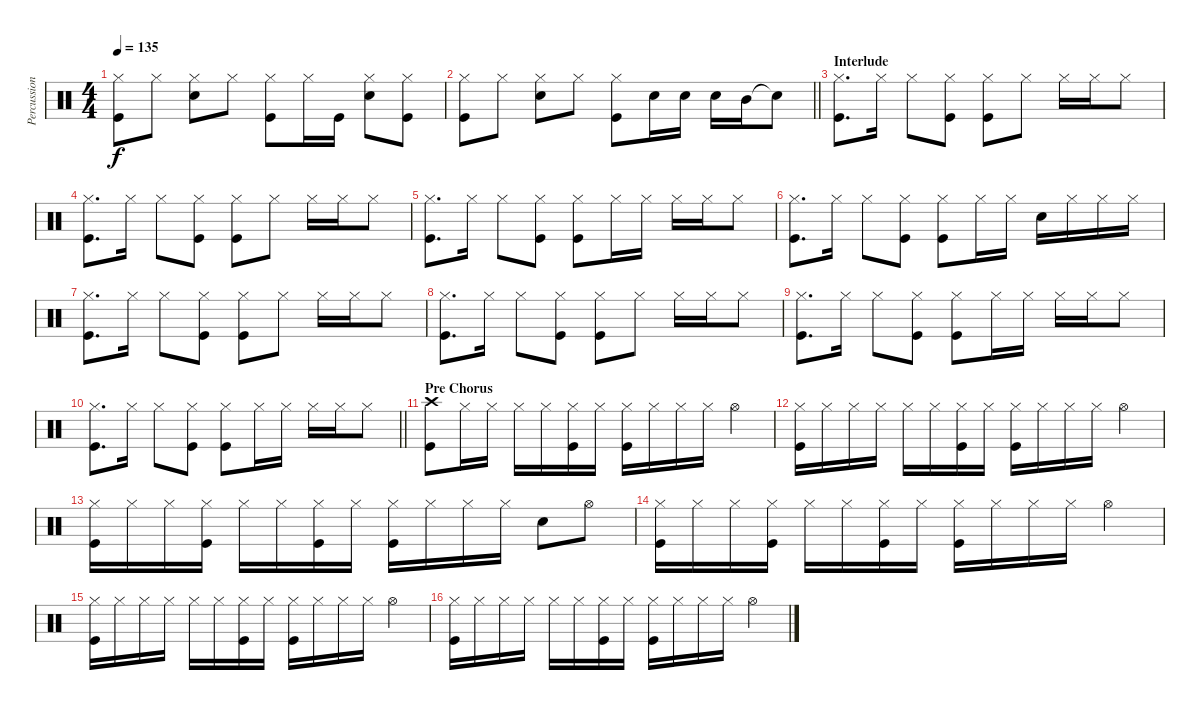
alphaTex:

\track ("Percussion" "Percussion") {instrument percussion}
\staff {score}
\articulation defaults
\ts (4 4)
\tempo 135
\clef neutral
\ks c
("Kick (hit)" "Hi-Hat (closed)").8{dy f} "Hi-Hat (closed)".8 ("Hi-Hat (closed)" "Snare (hit) 2").8 "Hi-Hat (closed)".8 ("Kick (hit)" "Hi-Hat (closed)").8 "Hi-Hat (closed)".16 "Kick (hit)".16 ("Hi-Hat (closed)" "Snare (hit) 2").8 ("Kick (hit)" "Hi-Hat (closed)").8 |
\barLineRight lightlight
("Kick (hit)" "Hi-Hat (closed)").8 "Hi-Hat (closed)".8 ("Hi-Hat (closed)" "Snare (hit) 2").8 "Hi-Hat (closed)".8 ("Kick (hit)" "Hi-Hat (closed)").8 "Snare (hit) 2".16 "Snare (hit) 2".16 "Snare (hit) 2".16 "Mid Tom (hit)".16 "Snare (hit)"{t}.8 |
\section ("" "Interlude")
("Kick (hit)" "Hi-Hat (closed)").8{d} "Hi-Hat (closed)".16 "Hi-Hat (closed)".8 ("Kick (hit)" "Hi-Hat (closed)").8 ("Kick (hit)" "Hi-Hat (closed)").8 "Hi-Hat (closed)".8 "Hi-Hat (closed)".16 "Hi-Hat (closed)".16 "Hi-Hat (closed)".8 |
("Kick (hit)" "Hi-Hat (closed)").8{d} "Hi-Hat (closed)".16 "Hi-Hat (closed)".8 ("Kick (hit)" "Hi-Hat (closed)").8 ("Kick (hit)" "Hi-Hat (closed)").8 "Hi-Hat (closed)".8 "Hi-Hat (closed)".16 "Hi-Hat (closed)".16 "Hi-Hat (closed)".8 |
("Kick (hit)" "Hi-Hat (closed)").8{d} "Hi-Hat (closed)".16 "Hi-Hat (closed)".8 ("Kick (hit)" "Hi-Hat (closed)").8 ("Kick (hit)" "Hi-Hat (closed)").8 "Hi-Hat (closed)".16 "Hi-Hat (closed)".16 "Hi-Hat (closed)".16 "Hi-Hat (closed)".16 "Hi-Hat (closed)".8 |
("Kick (hit)" "Hi-Hat (closed)").8{d} "Hi-Hat (closed)".16 "Hi-Hat (closed)".8 ("Kick (hit)" "Hi-Hat (closed)").8 ("Kick (hit)" "Hi-Hat (closed)").8 "Hi-Hat (closed)".16 "Hi-Hat (closed)".16 "Snare (hit) 2".16 "Hi-Hat (closed)".16 "Hi-Hat (closed)".16 "Hi-Hat (closed)".16 |
("Kick (hit)" "Hi-Hat (closed)").8{d} "Hi-Hat (closed)".16 "Hi-Hat (closed)".8 ("Kick (hit)" "Hi-Hat (closed)").8 ("Kick (hit)" "Hi-Hat (closed)").8 "Hi-Hat (closed)".8 "Hi-Hat (closed)".16 "Hi-Hat (closed)".16 "Hi-Hat (closed)".8 |
("Kick (hit)" "Hi-Hat (closed)").8{d} "Hi-Hat (closed)".16 "Hi-Hat (closed)".8 ("Kick (hit)" "Hi-Hat (closed)").8 ("Kick (hit)" "Hi-Hat (closed)").8 "Hi-Hat (closed)".8 "Hi-Hat (closed)".16 "Hi-Hat (closed)".16 "Hi-Hat (closed)".8 |
("Kick (hit)" "Hi-Hat (closed)").8{d} "Hi-Hat (closed)".16 "Hi-Hat (closed)".8 ("Kick (hit)" "Hi-Hat (closed)").8 ("Kick (hit)" "Hi-Hat (closed)").8 "Hi-Hat (closed)".16 "Hi-Hat (closed)".16 "Hi-Hat (closed)".16 "Hi-Hat (closed)".16 "Hi-Hat (closed)".8 |
\barLineRight lightlight
("Kick (hit)" "Hi-Hat (closed)").8{d} "Hi-Hat (closed)".16 "Hi-Hat (closed)".8 ("Kick (hit)" "Hi-Hat (closed)").8 ("Kick (hit)" "Hi-Hat (closed)").8 "Hi-Hat (closed)".16 "Hi-Hat (closed)".16 "Hi-Hat (closed)".16 "Hi-Hat (closed)".16 "Hi-Hat (closed)".8 |
\section ("" "Pre Chorus")
("Kick (hit)" "Crash high (hit)").8 "Hi-Hat (closed)".16 "Hi-Hat (closed)".16 "Hi-Hat (closed)".16 "Hi-Hat (closed)".16 ("Kick (hit)" "Hi-Hat (closed)").16 "Hi-Hat (closed)".16 ("Kick (hit)" "Hi-Hat (closed)").16 "Hi-Hat (closed)".16 "Hi-Hat (closed)".16 "Hi-Hat (closed)".16 "Hi-Hat (open)".4 |
("Kick (hit)" "Hi-Hat (closed)").16 "Hi-Hat (closed)".16 "Hi-Hat (closed)".16 "Hi-Hat (closed)".16 "Hi-Hat (closed)".16 "Hi-Hat (closed)".16 ("Kick (hit)" "Hi-Hat (closed)").16 "Hi-Hat (closed)".16 ("Kick (hit)" "Hi-Hat (closed)").16 "Hi-Hat (closed)".16 "Hi-Hat (closed)".16 "Hi-Hat (closed)".16 "Hi-Hat (open)".4 |
("Kick (hit)" "Hi-Hat (closed)").16 "Hi-Hat (closed)".16 "Hi-Hat (closed)".16 ("Kick (hit)" "Hi-Hat (closed)").16 "Hi-Hat (closed)".16 "Hi-Hat (closed)".16 ("Kick (hit)" "Hi-Hat (closed)").16 "Hi-Hat (closed)".16 ("Kick (hit)" "Hi-Hat (closed)").16 "Hi-Hat (closed)".16 "Hi-Hat (closed)".16 "Hi-Hat (closed)".16 "Snare (hit) 2".8 "Hi-Hat (open)".8 |
("Kick (hit)" "Hi-Hat (closed)").16 "Hi-Hat (closed)".16 "Hi-Hat (closed)".16 ("Kick (hit)" "Hi-Hat (closed)").16 "Hi-Hat (closed)".16 "Hi-Hat (closed)".16 ("Kick (hit)" "Hi-Hat (closed)").16 "Hi-Hat (closed)".16 ("Kick (hit)" "Hi-Hat (closed)").16 "Hi-Hat (closed)".16 "Hi-Hat (closed)".16 "Hi-Hat (closed)".16 "Hi-Hat (open)".4 |
("Kick (hit)" "Hi-Hat (closed)").16 "Hi-Hat (closed)".16 "Hi-Hat (closed)".16 "Hi-Hat (closed)".16 "Hi-Hat (closed)".16 "Hi-Hat (closed)".16 ("Kick (hit)" "Hi-Hat (closed)").16 "Hi-Hat (closed)".16 ("Kick (hit)" "Hi-Hat (closed)").16 "Hi-Hat (closed)".16 "Hi-Hat (closed)".16 "Hi-Hat (closed)".16 "Hi-Hat (open)".4 |
("Kick (hit)" "Hi-Hat (closed)").16 "Hi-Hat (closed)".16 "Hi-Hat (closed)".16 "Hi-Hat (closed)".16 "Hi-Hat (closed)".16 "Hi-Hat (closed)".16 ("Kick (hit)" "Hi-Hat (closed)").16 "Hi-Hat (closed)".16 ("Kick (hit)" "Hi-Hat (closed)").16 "Hi-Hat (closed)".16 "Hi-Hat (closed)".16 "Hi-Hat (closed)".16 "Hi-Hat (open)".4
